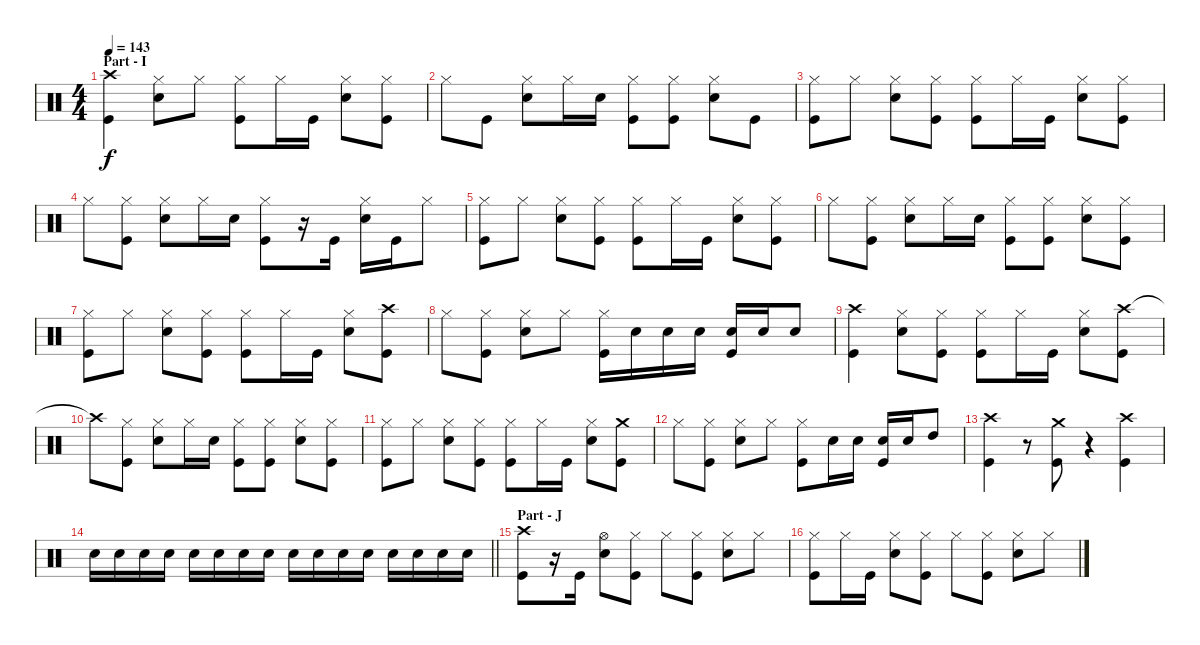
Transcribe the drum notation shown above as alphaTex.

\track "" {instrument percussion}
\staff {score}
\articulation defaults
\ts (4 4)
\section ("" "Part - I")
\tempo 143
\clef neutral
\ks c
("Crash high (hit)" "Kick (hit)").4{dy f} ("Hi-Hat (closed)" "Snare (hit) 2").8 "Hi-Hat (closed)".8 ("Hi-Hat (closed)" "Kick (hit)").8 "Hi-Hat (closed)".16 "Kick (hit)".16 ("Hi-Hat (closed)" "Snare (hit) 2").8 ("Hi-Hat (closed)" "Kick (hit)").8 |
"Hi-Hat (closed)".8 "Kick (hit)".8 ("Hi-Hat (closed)" "Snare (hit) 2").8 "Hi-Hat (closed)".16 "Snare (hit) 2".16 ("Hi-Hat (closed)" "Kick (hit)").8 ("Hi-Hat (closed)" "Kick (hit)").8 ("Hi-Hat (closed)" "Snare (hit) 2").8 "Kick (hit)".8 |
("Hi-Hat (closed)" "Kick (hit)").8 "Hi-Hat (closed)".8 ("Hi-Hat (closed)" "Snare (hit) 2").8 ("Hi-Hat (closed)" "Kick (hit)").8 ("Hi-Hat (closed)" "Kick (hit)").8 "Hi-Hat (closed)".16 "Kick (hit)".16 ("Hi-Hat (closed)" "Snare (hit) 2").8 ("Hi-Hat (closed)" "Kick (hit)").8 |
"Hi-Hat (closed)".8 ("Hi-Hat (closed)" "Kick (hit)").8 ("Hi-Hat (closed)" "Snare (hit) 2").8 "Hi-Hat (closed)".16 "Snare (hit) 2".16 ("Hi-Hat (closed)" "Kick (hit)").8 r.16 "Kick (hit)".16 ("Hi-Hat (closed)" "Snare (hit) 2").16 "Kick (hit)".16 "Hi-Hat (closed)".8 |
("Hi-Hat (closed)" "Kick (hit)").8 "Hi-Hat (closed)".8 ("Hi-Hat (closed)" "Snare (hit) 2").8 ("Hi-Hat (closed)" "Kick (hit)").8 ("Hi-Hat (closed)" "Kick (hit)").8 "Hi-Hat (closed)".16 "Kick (hit)".16 ("Hi-Hat (closed)" "Snare (hit) 2").8 ("Hi-Hat (closed)" "Kick (hit)").8 |
"Hi-Hat (closed)".8 ("Hi-Hat (closed)" "Kick (hit)").8 ("Hi-Hat (closed)" "Snare (hit) 2").8 "Hi-Hat (closed)".16 "Snare (hit) 2".16 ("Hi-Hat (closed)" "Kick (hit)").8 ("Hi-Hat (closed)" "Kick (hit)").8 ("Hi-Hat (closed)" "Snare (hit) 2").8 ("Hi-Hat (closed)" "Kick (hit)").8 |
("Hi-Hat (closed)" "Kick (hit)").8 "Hi-Hat (closed)".8 ("Hi-Hat (closed)" "Snare (hit) 2").8 ("Hi-Hat (closed)" "Kick (hit)").8 ("Hi-Hat (closed)" "Kick (hit)").8 "Hi-Hat (closed)".16 "Kick (hit)".16 ("Hi-Hat (closed)" "Snare (hit) 2").8 ("Crash high (hit)" "Kick (hit)").8 |
"Hi-Hat (closed)".8 ("Hi-Hat (closed)" "Kick (hit)").8 ("Hi-Hat (closed)" "Snare (hit) 2").8 "Hi-Hat (closed)".8 ("Hi-Hat (closed)" "Kick (hit)").16 "Snare (hit) 2".16 "Snare (hit) 2".16 "Snare (hit) 2".16 ("Snare (hit) 2" "Kick (hit)").16 "Snare (hit) 2".16 "Snare (hit) 2".8 |
("Crash high (hit)" "Kick (hit)").4 ("Hi-Hat (closed)" "Snare (hit) 2").8 ("Hi-Hat (closed)" "Kick (hit)").8 ("Hi-Hat (closed)" "Kick (hit)").8 "Hi-Hat (closed)".16 "Kick (hit)".16 ("Hi-Hat (closed)" "Snare (hit) 2").8 ("Crash high (hit)" "Kick (hit)").8 |
"Crash high (hit)"{t}.8 ("Hi-Hat (closed)" "Kick (hit)").8 ("Hi-Hat (closed)" "Snare (hit) 2").8 "Hi-Hat (closed)".16 "Snare (hit) 2".16 ("Hi-Hat (closed)" "Kick (hit)").8 ("Hi-Hat (closed)" "Kick (hit)").8 ("Hi-Hat (closed)" "Snare (hit) 2").8 ("Hi-Hat (closed)" "Kick (hit)").8 |
("Hi-Hat (closed)" "Kick (hit)").8 "Hi-Hat (closed)".8 ("Hi-Hat (closed)" "Snare (hit) 2").8 ("Hi-Hat (closed)" "Kick (hit)").8 ("Hi-Hat (closed)" "Kick (hit)").8 "Hi-Hat (closed)".16 "Kick (hit)".16 ("Hi-Hat (closed)" "Snare (hit) 2").8 ("Crash medium (hit)" "Kick (hit)").8 |
"Hi-Hat (closed)".8 ("Hi-Hat (closed)" "Kick (hit)").8 ("Hi-Hat (closed)" "Snare (hit) 2").8 "Hi-Hat (closed)".8 ("Hi-Hat (closed)" "Kick (hit)").8 "Snare (hit) 2".16 "Snare (hit) 2".16 ("Snare (hit) 2" "Kick (hit)").16 "Snare (hit) 2".16 "High Tom (hit)".8 |
("Crash high (hit)" "Kick (hit)").4 r.8 ("Crash medium (hit)" "Kick (hit)").8 r.4 ("Crash high (hit)" "Kick (hit)").4 |
\barLineRight lightlight "Snare (hit) 2".16{volume 3} "Snare (hit) 2".16{volume 14} "Snare (hit) 2".16 "Snare (hit) 2".16 "Snare (hit) 2".16 "Snare (hit) 2".16 "Snare (hit) 2".16 "Snare (hit) 2".16 "Snare (hit) 2".16 "Snare (hit) 2".16 "Snare (hit) 2".16 "Snare (hit) 2".16 "Snare (hit) 2".16 "Snare (hit) 2".16 "Snare (hit) 2".16 "Snare (hit) 2".16
|
\section ("" "Part - J")
("Crash high (hit)" "Kick (hit)").8{volume 14} r.16 "Kick (hit)".16 ("Hi-Hat (open)" "Snare (hit) 2").8 ("Hi-Hat (closed)" "Kick (hit)").8 "Hi-Hat (closed)".8 ("Hi-Hat (closed)" "Kick (hit)").8 ("Hi-Hat (closed)" "Snare (hit) 2").8 "Hi-Hat (closed)".8 |
("Hi-Hat (closed)" "Kick (hit)").8 "Hi-Hat (closed)".16 "Kick (hit)".16 ("Hi-Hat (closed)" "Snare (hit) 2").8 ("Hi-Hat (closed)" "Kick (hit)").8 "Hi-Hat (closed)".8 ("Hi-Hat (closed)" "Kick (hit)").8 ("Hi-Hat (closed)" "Snare (hit) 2").8 "Hi-Hat (closed)".8
